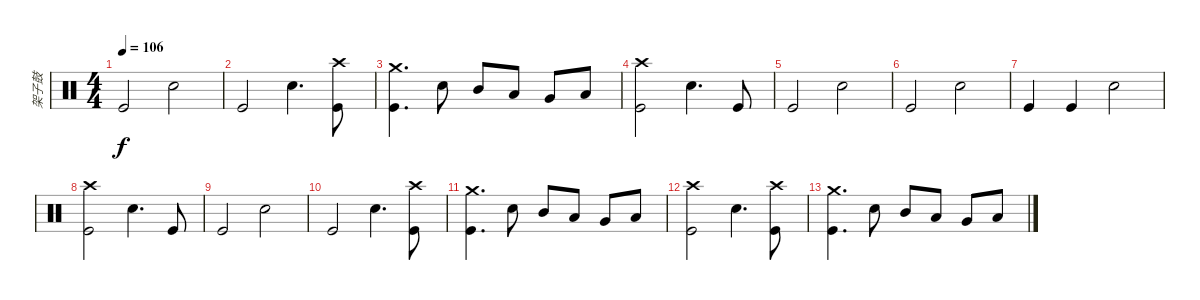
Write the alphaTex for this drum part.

\track ("架子鼓" "架子鼓") {instrument percussion}
\staff {score}
\articulation defaults
\ts (4 4)
\tempo 106
\clef neutral
\ks c "Kick (hit)".2{dy f} "Electric Snare (hit)".2
|
"Kick (hit)".2 "Electric Snare (hit)".4{d} ("Crash high (hit)" "Kick (hit)").8 |
("Crash medium (hit)" "Kick (hit)").4{d} "Electric Snare (hit)".8 "Mid Tom (hit)".8 "Low Tom (hit)".8 "Very Low Tom (hit)".8 "Low Floor Tom (hit)".8 |
("Crash high (hit)" "Kick (hit)").2 "Electric Snare (hit)".4{d} "Kick (hit)".8 |
"Kick (hit)".2 "Electric Snare (hit)".2 |
"Kick (hit)".2 "Electric Snare (hit)".2 |
"Kick (hit)".4 "Kick (hit)".4 "Electric Snare (hit)".2 |
("Crash high (hit)" "Kick (hit)").2 "Electric Snare (hit)".4{d} "Kick (hit)".8 |
"Kick (hit)".2 "Electric Snare (hit)".2 |
"Kick (hit)".2 "Electric Snare (hit)".4{d} ("Crash high (hit)" "Kick (hit)").8 |
("Crash medium (hit)" "Kick (hit)").4{d} "Electric Snare (hit)".8 "Mid Tom (hit)".8 "Low Tom (hit)".8 "Very Low Tom (hit)".8 "Low Floor Tom (hit)".8 |
("Crash high (hit)" "Kick (hit)").2 "Electric Snare (hit)".4{d} ("Crash high (hit)" "Kick (hit)").8 |
("Crash medium (hit)" "Kick (hit)").4{d} "Electric Snare (hit)".8 "Mid Tom (hit)".8 "Low Tom (hit)".8 "Very Low Tom (hit)".8 "Low Floor Tom (hit)".8
